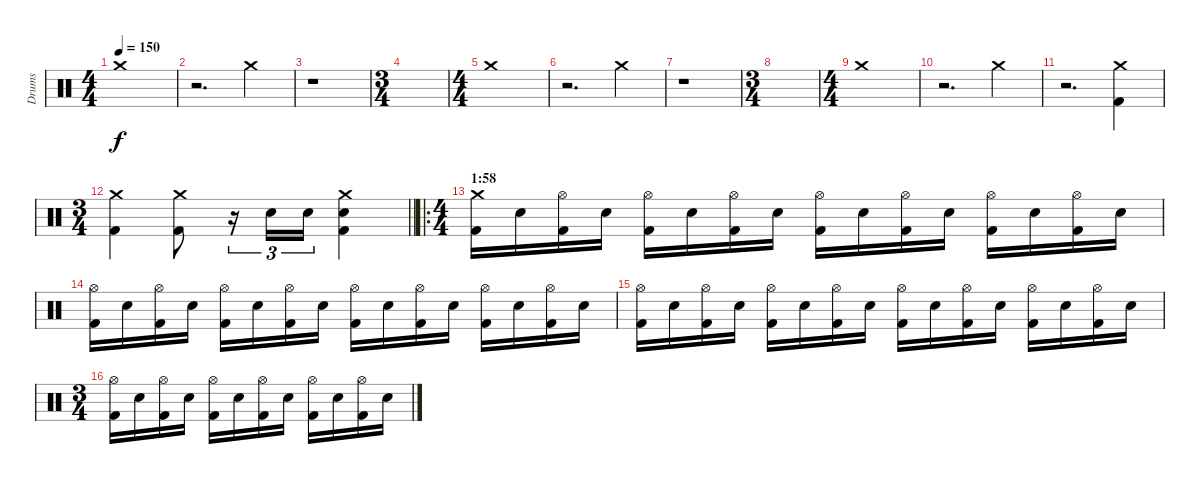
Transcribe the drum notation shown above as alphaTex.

\track ("Drums" "Drums") {instrument percussion}
\staff {score}
\articulation defaults
\ts (4 4)
\tempo 150
\clef neutral
\ks c "Crash medium (hit)".1{dy f}
|
r.2{d} "Crash medium (hit)".4 |
r.1 |
\ts (3 4)
|
\ts (4 4)
"Crash medium (hit)".1 |
r.2{d} "Crash medium (hit)".4 |
r.1 |
\ts (3 4)
|
\ts (4 4)
"Crash medium (hit)".1 |
r.2{d} "Crash medium (hit)".4 |
r.2{d} ("Crash medium (hit)" "Kick (hit) 2").4 |
\ts (3 4)
\barLineRight lightlight
("Crash medium (hit)" "Kick (hit) 2").4 ("Crash medium (hit)" "Kick (hit) 2").8 r.16{tu (3 2)} "Electric Snare (hit)".16{tu (3 2)} "Electric Snare (hit)".16{tu (3 2)} ("Crash medium (hit)" "Electric Snare (hit)" "Kick (hit) 2").4 |
\ro
\ts (4 4)
\section ("" "1:58")
("Crash medium (hit)" "Kick (hit) 2").16 "Electric Snare (hit)".16 ("Hi-Hat (open)" "Kick (hit) 2").16 "Electric Snare (hit)".16 ("Hi-Hat (open)" "Kick (hit) 2").16 "Electric Snare (hit)".16 ("Hi-Hat (open)" "Kick (hit) 2").16 "Electric Snare (hit)".16 ("Hi-Hat (open)" "Kick (hit) 2").16 "Electric Snare (hit)".16 ("Hi-Hat (open)" "Kick (hit) 2").16 "Electric Snare (hit)".16 ("Hi-Hat (open)" "Kick (hit) 2").16 "Electric Snare (hit)".16 ("Hi-Hat (open)" "Kick (hit) 2").16 "Electric Snare (hit)".16 |
("Hi-Hat (open)" "Kick (hit) 2").16 "Electric Snare (hit)".16 ("Hi-Hat (open)" "Kick (hit) 2").16 "Electric Snare (hit)".16 ("Hi-Hat (open)" "Kick (hit) 2").16 "Electric Snare (hit)".16 ("Hi-Hat (open)" "Kick (hit) 2").16 "Electric Snare (hit)".16 ("Hi-Hat (open)" "Kick (hit) 2").16 "Electric Snare (hit)".16 ("Hi-Hat (open)" "Kick (hit) 2").16 "Electric Snare (hit)".16 ("Hi-Hat (open)" "Kick (hit) 2").16 "Electric Snare (hit)".16 ("Hi-Hat (open)" "Kick (hit) 2").16 "Electric Snare (hit)".16 |
("Hi-Hat (open)" "Kick (hit) 2").16 "Electric Snare (hit)".16 ("Hi-Hat (open)" "Kick (hit) 2").16 "Electric Snare (hit)".16 ("Hi-Hat (open)" "Kick (hit) 2").16 "Electric Snare (hit)".16 ("Hi-Hat (open)" "Kick (hit) 2").16 "Electric Snare (hit)".16 ("Hi-Hat (open)" "Kick (hit) 2").16 "Electric Snare (hit)".16 ("Hi-Hat (open)" "Kick (hit) 2").16 "Electric Snare (hit)".16 ("Hi-Hat (open)" "Kick (hit) 2").16 "Electric Snare (hit)".16 ("Hi-Hat (open)" "Kick (hit) 2").16 "Electric Snare (hit)".16 |
\ts (3 4)
("Hi-Hat (open)" "Kick (hit) 2").16 "Electric Snare (hit)".16 ("Hi-Hat (open)" "Kick (hit) 2").16 "Electric Snare (hit)".16 ("Hi-Hat (open)" "Kick (hit) 2").16 "Electric Snare (hit)".16 ("Hi-Hat (open)" "Kick (hit) 2").16 "Electric Snare (hit)".16 ("Hi-Hat (open)" "Kick (hit) 2").16 "Electric Snare (hit)".16 ("Hi-Hat (open)" "Kick (hit) 2").16 "Electric Snare (hit)".16
